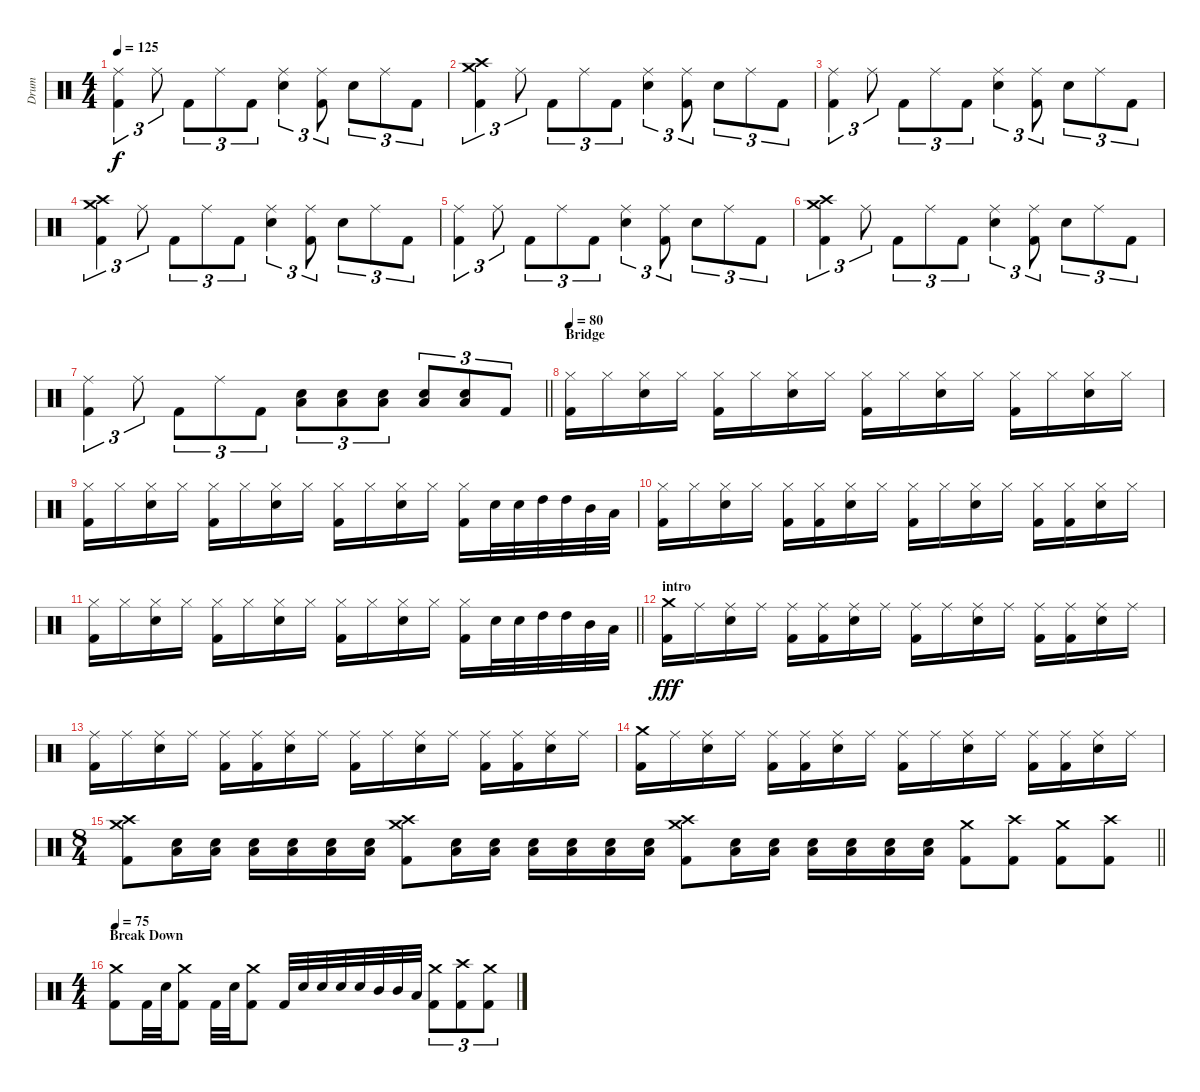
\track ("Drum" "Drum") {instrument percussion}
\staff {score}
\articulation defaults
\ts (4 4)
\tempo 125
\clef neutral
\ks c
("Ride (middle)" "Kick (hit) 2").4{tu (3 2) dy f} "Ride (middle)".8{tu (3 2)} "Kick (hit) 2".8{tu (3 2)} "Ride (middle)".8{tu (3 2)} "Kick (hit) 2".8{tu (3 2)} ("Ride (middle)" "Snare (hit) 2").4{tu (3 2)} ("Ride (middle)" "Kick (hit) 2").8{tu (3 2)} "Snare (hit) 2".8{tu (3 2)} "Ride (middle)".8{tu (3 2)} "Kick (hit) 2".8{tu (3 2)} |
("Crash medium (hit)" "Crash high (hit)" "Kick (hit) 2").4{tu (3 2)} "Ride (middle)".8{tu (3 2)} "Kick (hit) 2".8{tu (3 2)} "Ride (middle)".8{tu (3 2)} "Kick (hit) 2".8{tu (3 2)} ("Ride (middle)" "Snare (hit) 2").4{tu (3 2)} ("Ride (middle)" "Kick (hit) 2").8{tu (3 2)} "Snare (hit) 2".8{tu (3 2)} "Ride (middle)".8{tu (3 2)} "Kick (hit) 2".8{tu (3 2)} |
("Ride (middle)" "Kick (hit) 2").4{tu (3 2)} "Ride (middle)".8{tu (3 2)} "Kick (hit) 2".8{tu (3 2)} "Ride (middle)".8{tu (3 2)} "Kick (hit) 2".8{tu (3 2)} ("Ride (middle)" "Snare (hit) 2").4{tu (3 2)} ("Ride (middle)" "Kick (hit) 2").8{tu (3 2)} "Snare (hit) 2".8{tu (3 2)} "Ride (middle)".8{tu (3 2)} "Kick (hit) 2".8{tu (3 2)} |
("Crash medium (hit)" "Crash high (hit)" "Kick (hit) 2").4{tu (3 2)} "Ride (middle)".8{tu (3 2)} "Kick (hit) 2".8{tu (3 2)} "Ride (middle)".8{tu (3 2)} "Kick (hit) 2".8{tu (3 2)} ("Ride (middle)" "Snare (hit) 2").4{tu (3 2)} ("Ride (middle)" "Kick (hit) 2").8{tu (3 2)} "Snare (hit) 2".8{tu (3 2)} "Ride (middle)".8{tu (3 2)} "Kick (hit) 2".8{tu (3 2)} |
("Ride (middle)" "Kick (hit) 2").4{tu (3 2)} "Ride (middle)".8{tu (3 2)} "Kick (hit) 2".8{tu (3 2)} "Ride (middle)".8{tu (3 2)} "Kick (hit) 2".8{tu (3 2)} ("Ride (middle)" "Snare (hit) 2").4{tu (3 2)} ("Ride (middle)" "Kick (hit) 2").8{tu (3 2)} "Snare (hit) 2".8{tu (3 2)} "Ride (middle)".8{tu (3 2)} "Kick (hit) 2".8{tu (3 2)} |
("Crash medium (hit)" "Crash high (hit)" "Kick (hit) 2").4{tu (3 2)} "Ride (middle)".8{tu (3 2)} "Kick (hit) 2".8{tu (3 2)} "Ride (middle)".8{tu (3 2)} "Kick (hit) 2".8{tu (3 2)} ("Ride (middle)" "Snare (hit) 2").4{tu (3 2)} ("Ride (middle)" "Kick (hit) 2").8{tu (3 2)} "Snare (hit) 2".8{tu (3 2)} "Ride (middle)".8{tu (3 2)} "Kick (hit) 2".8{tu (3 2)} |
\barLineRight lightlight
("Ride (middle)" "Kick (hit) 2").4{tu (3 2)} "Ride (middle)".8{tu (3 2)} "Kick (hit) 2".8{tu (3 2)} "Ride (middle)".8{tu (3 2)} "Kick (hit) 2".8{tu (3 2)} ("Low Tom (hit)" "Snare (hit) 2").8{tu (3 2)} ("Low Tom (hit)" "Snare (hit) 2").8{tu (3 2)} ("Low Tom (hit)" "Snare (hit) 2").8{tu (3 2)} ("Low Tom (hit)" "Snare (hit) 2").8{tu (3 2)} ("Low Tom (hit)" "Snare (hit) 2").8{tu (3 2)} "Kick (hit) 2".8{tu (3 2)} |
\section ("" "Bridge")
\tempo 80
("Hi-Hat (closed)" "Kick (hit) 2").16 "Hi-Hat (closed)".16 ("Hi-Hat (closed)" "Snare (hit) 2").16 "Hi-Hat (closed)".16 ("Hi-Hat (closed)" "Kick (hit) 2").16 "Hi-Hat (closed)".16 ("Hi-Hat (closed)" "Snare (hit) 2").16 "Hi-Hat (closed)".16 ("Hi-Hat (closed)" "Kick (hit) 2").16 "Hi-Hat (closed)".16 ("Hi-Hat (closed)" "Snare (hit) 2").16 "Hi-Hat (closed)".16 ("Hi-Hat (closed)" "Kick (hit) 2").16 "Hi-Hat (closed)".16 ("Hi-Hat (closed)" "Snare (hit) 2").16 "Hi-Hat (closed)".16 |
("Hi-Hat (closed)" "Kick (hit) 2").16 "Hi-Hat (closed)".16 ("Hi-Hat (closed)" "Snare (hit) 2").16 "Hi-Hat (closed)".16 ("Hi-Hat (closed)" "Kick (hit) 2").16 "Hi-Hat (closed)".16 ("Hi-Hat (closed)" "Snare (hit) 2").16 "Hi-Hat (closed)".16 ("Hi-Hat (closed)" "Kick (hit) 2").16 "Hi-Hat (closed)".16 ("Hi-Hat (closed)" "Snare (hit) 2").16 "Hi-Hat (closed)".16 ("Hi-Hat (closed)" "Kick (hit) 2").16 "Snare (hit) 2".32 "Snare (hit) 2".32 "High Tom (hit)".32 "High Tom (hit)".32 "Mid Tom (hit)".32 "Low Tom (hit)".32 |
("Hi-Hat (closed)" "Kick (hit) 2").16 "Hi-Hat (closed)".16 ("Hi-Hat (closed)" "Snare (hit) 2").16 "Hi-Hat (closed)".16 ("Hi-Hat (closed)" "Kick (hit) 2").16 ("Hi-Hat (closed)" "Kick (hit) 2").16 ("Hi-Hat (closed)" "Snare (hit) 2").16 "Hi-Hat (closed)".16 ("Hi-Hat (closed)" "Kick (hit) 2").16 "Hi-Hat (closed)".16 ("Hi-Hat (closed)" "Snare (hit) 2").16 "Hi-Hat (closed)".16 ("Hi-Hat (closed)" "Kick (hit) 2").16 ("Hi-Hat (closed)" "Kick (hit) 2").16 ("Hi-Hat (closed)" "Snare (hit) 2").16 "Hi-Hat (closed)".16 |
\barLineRight lightlight
("Hi-Hat (closed)" "Kick (hit) 2").16 "Hi-Hat (closed)".16 ("Hi-Hat (closed)" "Snare (hit) 2").16 "Hi-Hat (closed)".16 ("Hi-Hat (closed)" "Kick (hit) 2").16 "Hi-Hat (closed)".16 ("Hi-Hat (closed)" "Snare (hit) 2").16 "Hi-Hat (closed)".16 ("Hi-Hat (closed)" "Kick (hit) 2").16 "Hi-Hat (closed)".16 ("Hi-Hat (closed)" "Snare (hit) 2").16 "Hi-Hat (closed)".16 ("Hi-Hat (closed)" "Kick (hit) 2").16 "Snare (hit) 2".32 "Snare (hit) 2".32 "High Tom (hit)".32 "High Tom (hit)".32 "Mid Tom (hit)".32 "Low Tom (hit)".32 |
\section ("" "intro")
("Crash medium (hit)" "Kick (hit) 2").16{dy fff} "Ride (middle)".16 ("Ride (middle)" "Snare (hit) 2").16 "Ride (middle)".16 ("Ride (middle)" "Kick (hit) 2").16 ("Ride (middle)" "Kick (hit) 2").16 ("Ride (middle)" "Snare (hit) 2").16 "Ride (middle)".16 ("Ride (middle)" "Kick (hit) 2").16 "Ride (middle)".16 ("Ride (middle)" "Snare (hit) 2").16 "Ride (middle)".16 ("Ride (middle)" "Kick (hit) 2").16 ("Ride (middle)" "Kick (hit) 2").16 ("Ride (middle)" "Snare (hit) 2").16 "Ride (middle)".16 |
("Ride (middle)" "Kick (hit) 2").16 "Ride (middle)".16 ("Ride (middle)" "Snare (hit) 2").16 "Ride (middle)".16 ("Ride (middle)" "Kick (hit) 2").16 ("Ride (middle)" "Kick (hit) 2").16 ("Ride (middle)" "Snare (hit) 2").16 "Ride (middle)".16 ("Ride (middle)" "Kick (hit) 2").16 "Ride (middle)".16 ("Ride (middle)" "Snare (hit) 2").16 "Ride (middle)".16 ("Ride (middle)" "Kick (hit) 2").16 ("Ride (middle)" "Kick (hit) 2").16 ("Ride (middle)" "Snare (hit) 2").16 "Ride (middle)".16 |
("Crash medium (hit)" "Kick (hit) 2").16 "Ride (middle)".16 ("Ride (middle)" "Snare (hit) 2").16 "Ride (middle)".16 ("Ride (middle)" "Kick (hit) 2").16 ("Ride (middle)" "Kick (hit) 2").16 ("Ride (middle)" "Snare (hit) 2").16 "Ride (middle)".16 ("Ride (middle)" "Kick (hit) 2").16 "Ride (middle)".16 ("Ride (middle)" "Snare (hit) 2").16 "Ride (middle)".16 ("Ride (middle)" "Kick (hit) 2").16 ("Ride (middle)" "Kick (hit) 2").16 ("Ride (middle)" "Snare (hit) 2").16 "Ride (middle)".16 |
\ts (8 4)
\barLineRight lightlight
("Crash medium (hit)" "Crash high (hit)" "Kick (hit) 2").8 ("Snare (hit) 2" "Low Tom (hit)").16 ("Snare (hit) 2" "Low Tom (hit)").16 ("Snare (hit) 2" "Low Tom (hit)").16 ("Snare (hit) 2" "Low Tom (hit)").16 ("Snare (hit) 2" "Low Tom (hit)").16 ("Snare (hit) 2" "Low Tom (hit)").16 ("Crash medium (hit)" "Crash high (hit)" "Kick (hit) 2").8 ("Snare (hit) 2" "Low Tom (hit)").16 ("Snare (hit) 2" "Low Tom (hit)").16 ("Snare (hit) 2" "Low Tom (hit)").16 ("Snare (hit) 2" "Low Tom (hit)").16 ("Snare (hit) 2" "Low Tom (hit)").16 ("Snare (hit) 2" "Low Tom (hit)").16 ("Crash medium (hit)" "Crash high (hit)" "Kick (hit) 2").8 ("Snare (hit) 2" "Low Tom (hit)").16 ("Snare (hit) 2" "Low Tom (hit)").16 ("Snare (hit) 2" "Low Tom (hit)").16 ("Snare (hit) 2" "Low Tom (hit)").16 ("Snare (hit) 2" "Low Tom (hit)").16 ("Snare (hit) 2" "Low Tom (hit)").16 ("Crash medium (hit)" "Kick (hit) 2").8 ("Crash high (hit)" "Kick (hit) 2").8 ("Crash medium (hit)" "Kick (hit) 2").8 ("Crash high (hit)" "Kick (hit) 2").8 |
\ts (4 4)
\section ("" "Break Down")
\tempo 75
("Crash medium (hit)" "Kick (hit) 2").8 "Kick (hit) 2".32 "Snare (hit) 2".32 ("Crash medium (hit)" "Kick (hit) 2").8 "Kick (hit) 2".32 "Snare (hit) 2".32 ("Crash medium (hit)" "Kick (hit) 2").8 "Kick (hit) 2".32 "Snare (hit) 2".32 "Snare (hit) 2".32 "Snare (hit) 2".32 "Snare (hit) 2".32 "Mid Tom (hit)".32 "Mid Tom (hit)".32 "Low Tom (hit)".32 ("Crash medium (hit)" "Kick (hit) 2").8{tu (3 2)} ("Crash high (hit)" "Kick (hit) 2").8{tu (3 2)} ("Crash medium (hit)" "Kick (hit) 2").8{tu (3 2)}
